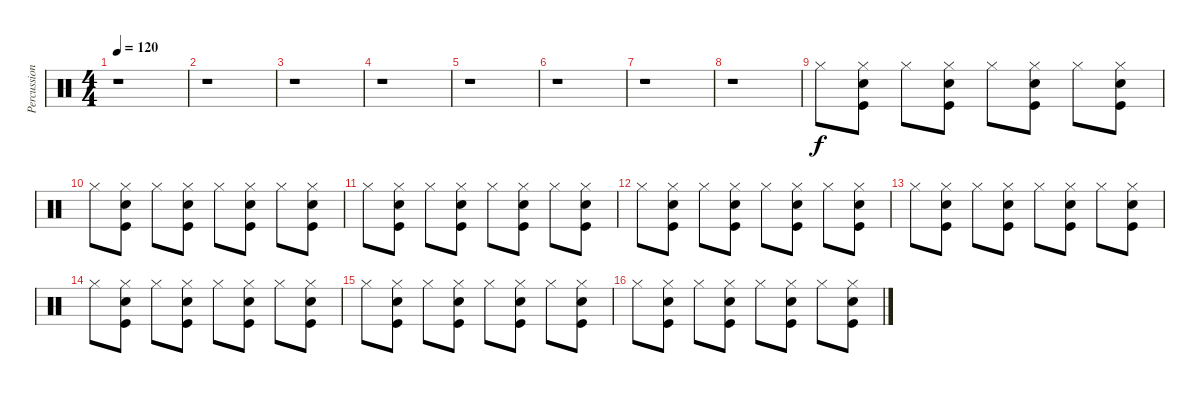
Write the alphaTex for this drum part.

\track ("Percussion-Alex" "Percussion") {instrument percussion}
\staff {score}
\articulation defaults
\ts (4 4)
\tempo 120
\clef neutral
\ks c
r.1{dy f} |
r.1 |
r.1 |
r.1 |
r.1 |
r.1 |
r.1 |
r.1 |
"Hi-Hat (closed)".8 ("Snare (hit) 2" "Hi-Hat (closed)" "Kick (hit)").8 "Hi-Hat (closed)".8 ("Snare (hit) 2" "Hi-Hat (closed)" "Kick (hit)").8 "Hi-Hat (closed)".8 ("Snare (hit) 2" "Hi-Hat (closed)" "Kick (hit)").8 "Hi-Hat (closed)".8 ("Snare (hit) 2" "Hi-Hat (closed)" "Kick (hit)").8 |
"Hi-Hat (closed)".8 ("Snare (hit) 2" "Hi-Hat (closed)" "Kick (hit)").8 "Hi-Hat (closed)".8 ("Snare (hit) 2" "Hi-Hat (closed)" "Kick (hit)").8 "Hi-Hat (closed)".8 ("Snare (hit) 2" "Hi-Hat (closed)" "Kick (hit)").8 "Hi-Hat (closed)".8 ("Snare (hit) 2" "Hi-Hat (closed)" "Kick (hit)").8 |
"Hi-Hat (closed)".8 ("Snare (hit) 2" "Hi-Hat (closed)" "Kick (hit)").8 "Hi-Hat (closed)".8 ("Snare (hit) 2" "Hi-Hat (closed)" "Kick (hit)").8 "Hi-Hat (closed)".8 ("Snare (hit) 2" "Hi-Hat (closed)" "Kick (hit)").8 "Hi-Hat (closed)".8 ("Snare (hit) 2" "Hi-Hat (closed)" "Kick (hit)").8 |
"Hi-Hat (closed)".8 ("Snare (hit) 2" "Hi-Hat (closed)" "Kick (hit)").8 "Hi-Hat (closed)".8 ("Snare (hit) 2" "Hi-Hat (closed)" "Kick (hit)").8 "Hi-Hat (closed)".8 ("Snare (hit) 2" "Hi-Hat (closed)" "Kick (hit)").8 "Hi-Hat (closed)".8 ("Snare (hit) 2" "Hi-Hat (closed)" "Kick (hit)").8 |
"Hi-Hat (closed)".8 ("Snare (hit) 2" "Hi-Hat (closed)" "Kick (hit)").8 "Hi-Hat (closed)".8 ("Snare (hit) 2" "Hi-Hat (closed)" "Kick (hit)").8 "Hi-Hat (closed)".8 ("Snare (hit) 2" "Hi-Hat (closed)" "Kick (hit)").8 "Hi-Hat (closed)".8 ("Snare (hit) 2" "Hi-Hat (closed)" "Kick (hit)").8 |
"Hi-Hat (closed)".8 ("Snare (hit) 2" "Hi-Hat (closed)" "Kick (hit)").8 "Hi-Hat (closed)".8 ("Snare (hit) 2" "Hi-Hat (closed)" "Kick (hit)").8 "Hi-Hat (closed)".8 ("Snare (hit) 2" "Hi-Hat (closed)" "Kick (hit)").8 "Hi-Hat (closed)".8 ("Snare (hit) 2" "Hi-Hat (closed)" "Kick (hit)").8 |
"Hi-Hat (closed)".8 ("Snare (hit) 2" "Hi-Hat (closed)" "Kick (hit)").8 "Hi-Hat (closed)".8 ("Snare (hit) 2" "Hi-Hat (closed)" "Kick (hit)").8 "Hi-Hat (closed)".8 ("Snare (hit) 2" "Hi-Hat (closed)" "Kick (hit)").8 "Hi-Hat (closed)".8 ("Snare (hit) 2" "Hi-Hat (closed)" "Kick (hit)").8 |
"Hi-Hat (closed)".8 ("Snare (hit) 2" "Hi-Hat (closed)" "Kick (hit)").8 "Hi-Hat (closed)".8 ("Snare (hit) 2" "Hi-Hat (closed)" "Kick (hit)").8 "Hi-Hat (closed)".8 ("Snare (hit) 2" "Hi-Hat (closed)" "Kick (hit)").8 "Hi-Hat (closed)".8 ("Snare (hit) 2" "Hi-Hat (closed)" "Kick (hit)").8
